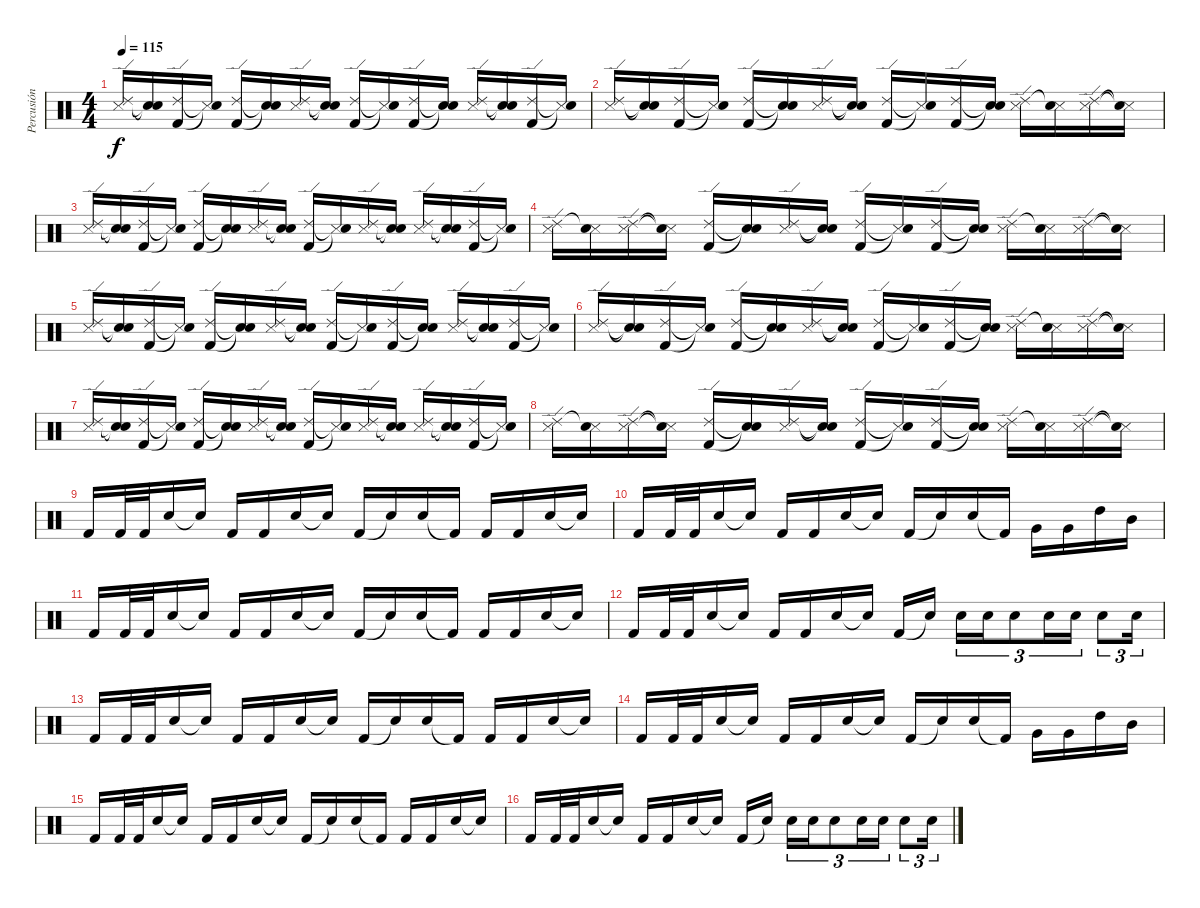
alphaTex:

\track ("Percusión" "Percusión") {instrument percussion}
\staff {score}
\articulation defaults
\ts (4 4)
\tempo 115
\clef neutral
\ks c
("Snare (side stick) 3" "Ride (edge) 2").16{dy f} ("Snare (hit)"{t} "Snare (hit)"{t}).16 ("Kick (hit) 2" "Ride (edge) 2").16 ("Snare (side stick) 3"{t} "Snare (hit)"{t}).16 ("Kick (hit) 2" "Ride (edge) 2").16 ("Snare (hit)"{t} "Snare (hit)"{t}).16 ("Snare (side stick) 3" "Ride (edge) 2").16 ("Snare (hit)"{t} "Snare (hit)"{t}).16 ("Kick (hit) 2" "Ride (edge) 2").16 ("Snare (side stick) 3"{t} "Snare (hit)"{t}).16 ("Kick (hit) 2" "Ride (edge) 2").16 ("Snare (hit)"{t} "Snare (hit)"{t}).16 ("Snare (side stick) 3" "Ride (edge) 2").16 ("Snare (hit)"{t} "Snare (hit)"{t}).16 ("Kick (hit) 2" "Ride (edge) 2").16 ("Snare (side stick) 3"{t} "Snare (hit)"{t}).16 |
("Snare (side stick) 3" "Ride (edge) 2").16 ("Snare (hit)"{t} "Snare (hit)"{t}).16 ("Kick (hit) 2" "Ride (edge) 2").16 ("Snare (side stick) 3"{t} "Snare (hit)"{t}).16 ("Kick (hit) 2" "Ride (edge) 2").16 ("Snare (hit)"{t} "Snare (hit)"{t}).16 ("Snare (side stick) 3" "Ride (edge) 2").16 ("Snare (hit)"{t} "Snare (hit)"{t}).16 ("Kick (hit) 2" "Ride (edge) 2").16 ("Snare (side stick) 3"{t} "Snare (hit)"{t}).16 ("Kick (hit) 2" "Ride (edge) 2").16 ("Snare (hit)"{t} "Snare (hit)"{t}).16 ("Snare (side stick) 3" "Ride (edge) 2").16 ("Snare (side stick) 3" "Snare (hit)"{t}).16 ("Snare (side stick) 3" "Ride (edge) 2").16 ("Snare (side stick) 3"{t} "Snare (hit)"{t}).16 |
("Snare (side stick) 3" "Ride (edge) 2").16 ("Snare (hit)"{t} "Snare (hit)"{t}).16 ("Kick (hit) 2" "Ride (edge) 2").16 ("Snare (side stick) 3"{t} "Snare (hit)"{t}).16 ("Kick (hit) 2" "Ride (edge) 2").16 ("Snare (hit)"{t} "Snare (hit)"{t}).16 ("Snare (side stick) 3" "Ride (edge) 2").16 ("Snare (hit)"{t} "Snare (hit)"{t}).16 ("Kick (hit) 2" "Ride (edge) 2").16 ("Snare (side stick) 3"{t} "Snare (hit)"{t}).16 ("Snare (side stick) 3" "Ride (edge) 2").16 ("Snare (hit)"{t} "Snare (hit)"{t}).16 ("Snare (side stick) 3" "Ride (edge) 2").16 ("Snare (hit)"{t} "Snare (hit)"{t}).16 ("Kick (hit) 2" "Ride (edge) 2").16 ("Snare (side stick) 3"{t} "Snare (hit)"{t}).16 |
("Snare (side stick) 3" "Ride (edge) 2").16 ("Snare (side stick) 3" "Snare (hit)"{t}).16 ("Snare (side stick) 3" "Ride (edge) 2").16 ("Snare (side stick) 3"{t} "Snare (hit)"{t}).16 ("Kick (hit) 2" "Ride (edge) 2").16 ("Snare (hit)"{t} "Snare (hit)"{t}).16 ("Snare (side stick) 3" "Ride (edge) 2").16 ("Snare (hit)"{t} "Snare (hit)"{t}).16 ("Kick (hit) 2" "Ride (edge) 2").16 ("Snare (side stick) 3"{t} "Snare (hit)"{t}).16 ("Kick (hit) 2" "Ride (edge) 2").16 ("Snare (hit)"{t} "Snare (hit)"{t}).16 ("Snare (side stick) 3" "Ride (edge) 2").16 ("Snare (side stick) 3" "Snare (hit)"{t}).16 ("Snare (side stick) 3" "Ride (edge) 2").16 ("Snare (side stick) 3"{t} "Snare (hit)"{t}).16 |
("Snare (side stick) 3" "Ride (edge) 2").16 ("Snare (hit)"{t} "Snare (hit)"{t}).16 ("Kick (hit) 2" "Ride (edge) 2").16 ("Snare (side stick) 3"{t} "Snare (hit)"{t}).16 ("Kick (hit) 2" "Ride (edge) 2").16 ("Snare (hit)"{t} "Snare (hit)"{t}).16 ("Snare (side stick) 3" "Ride (edge) 2").16 ("Snare (hit)"{t} "Snare (hit)"{t}).16 ("Kick (hit) 2" "Ride (edge) 2").16 ("Snare (side stick) 3"{t} "Snare (hit)"{t}).16 ("Kick (hit) 2" "Ride (edge) 2").16 ("Snare (hit)"{t} "Snare (hit)"{t}).16 ("Snare (side stick) 3" "Ride (edge) 2").16 ("Snare (hit)"{t} "Snare (hit)"{t}).16 ("Kick (hit) 2" "Ride (edge) 2").16 ("Snare (side stick) 3"{t} "Snare (hit)"{t}).16 |
("Snare (side stick) 3" "Ride (edge) 2").16 ("Snare (hit)"{t} "Snare (hit)"{t}).16 ("Kick (hit) 2" "Ride (edge) 2").16 ("Snare (side stick) 3"{t} "Snare (hit)"{t}).16 ("Kick (hit) 2" "Ride (edge) 2").16 ("Snare (hit)"{t} "Snare (hit)"{t}).16 ("Snare (side stick) 3" "Ride (edge) 2").16 ("Snare (hit)"{t} "Snare (hit)"{t}).16 ("Kick (hit) 2" "Ride (edge) 2").16 ("Snare (side stick) 3"{t} "Snare (hit)"{t}).16 ("Kick (hit) 2" "Ride (edge) 2").16 ("Snare (hit)"{t} "Snare (hit)"{t}).16 ("Snare (side stick) 3" "Ride (edge) 2").16 ("Snare (side stick) 3" "Snare (hit)"{t}).16 ("Snare (side stick) 3" "Ride (edge) 2").16 ("Snare (side stick) 3"{t} "Snare (hit)"{t}).16 |
("Snare (side stick) 3" "Ride (edge) 2").16 ("Snare (hit)"{t} "Snare (hit)"{t}).16 ("Kick (hit) 2" "Ride (edge) 2").16 ("Snare (side stick) 3"{t} "Snare (hit)"{t}).16 ("Kick (hit) 2" "Ride (edge) 2").16 ("Snare (hit)"{t} "Snare (hit)"{t}).16 ("Snare (side stick) 3" "Ride (edge) 2").16 ("Snare (hit)"{t} "Snare (hit)"{t}).16 ("Kick (hit) 2" "Ride (edge) 2").16 ("Snare (side stick) 3"{t} "Snare (hit)"{t}).16 ("Snare (side stick) 3" "Ride (edge) 2").16 ("Snare (hit)"{t} "Snare (hit)"{t}).16 ("Snare (side stick) 3" "Ride (edge) 2").16 ("Snare (hit)"{t} "Snare (hit)"{t}).16 ("Kick (hit) 2" "Ride (edge) 2").16 ("Snare (side stick) 3"{t} "Snare (hit)"{t}).16 |
("Snare (side stick) 3" "Ride (edge) 2").16 ("Snare (side stick) 3" "Snare (hit)"{t}).16 ("Snare (side stick) 3" "Ride (edge) 2").16 ("Snare (side stick) 3"{t} "Snare (hit)"{t}).16 ("Kick (hit) 2" "Ride (edge) 2").16 ("Snare (hit)"{t} "Snare (hit)"{t}).16 ("Snare (side stick) 3" "Ride (edge) 2").16 ("Snare (hit)"{t} "Snare (hit)"{t}).16 ("Kick (hit) 2" "Ride (edge) 2").16 ("Snare (side stick) 3"{t} "Snare (hit)"{t}).16 ("Kick (hit) 2" "Ride (edge) 2").16 ("Snare (hit)"{t} "Snare (hit)"{t}).16 ("Snare (side stick) 3" "Ride (edge) 2").16 ("Snare (side stick) 3" "Snare (hit)"{t}).16 ("Snare (side stick) 3" "Ride (edge) 2").16 ("Snare (side stick) 3"{t} "Snare (hit)"{t}).16 |
"Kick (hit) 2".16 "Kick (hit) 2".32 "Kick (hit) 2".32 "Electric Snare (hit)".16 "Snare (hit)"{t}.16 "Kick (hit) 2".16 "Kick (hit) 2".16 "Electric Snare (hit)".16 "Snare (hit)"{t}.16 "Kick (hit) 2".16 "Snare (hit)"{t}.16 "Electric Snare (hit)".16 "Kick (hit) 2"{t}.16 "Kick (hit) 2".16 "Kick (hit) 2".16 "Electric Snare (hit)".16 "Snare (hit)"{t}.16 |
"Kick (hit) 2".16 "Kick (hit) 2".32 "Kick (hit) 2".32 "Electric Snare (hit)".16 "Snare (hit)"{t}.16 "Kick (hit) 2".16 "Kick (hit) 2".16 "Electric Snare (hit)".16 "Snare (hit)"{t}.16 "Kick (hit) 2".16 "Snare (hit)"{t}.16 "Electric Snare (hit)".16 "Kick (hit) 2"{t}.16 "Very Low Tom (hit)".16 "Very Low Tom (hit)".16 "High Tom (hit)".16 "Mid Tom (hit)".16 |
"Kick (hit) 2".16 "Kick (hit) 2".32 "Kick (hit) 2".32 "Electric Snare (hit)".16 "Snare (hit)"{t}.16 "Kick (hit) 2".16 "Kick (hit) 2".16 "Electric Snare (hit)".16 "Snare (hit)"{t}.16 "Kick (hit) 2".16 "Snare (hit)"{t}.16 "Electric Snare (hit)".16 "Kick (hit) 2"{t}.16 "Kick (hit) 2".16 "Kick (hit) 2".16 "Electric Snare (hit)".16 "Snare (hit)"{t}.16 |
"Kick (hit) 2".16 "Kick (hit) 2".32 "Kick (hit) 2".32 "Electric Snare (hit)".16 "Snare (hit)"{t}.16 "Kick (hit) 2".16 "Kick (hit) 2".16 "Electric Snare (hit)".16 "Snare (hit)"{t}.16 "Kick (hit) 2".16 "Snare (hit)"{t}.16 "Electric Snare (hit)".16{tu (3 2)} "Electric Snare (hit)".16{tu (3 2)} "Electric Snare (hit)".8{tu (3 2)} "Electric Snare (hit)".16{tu (3 2)} "Electric Snare (hit)".16{tu (3 2)} "Electric Snare (hit)".8{tu (3 2)} "Electric Snare (hit)".16{tu (3 2)} |
"Kick (hit) 2".16 "Kick (hit) 2".32 "Kick (hit) 2".32 "Electric Snare (hit)".16 "Snare (hit)"{t}.16 "Kick (hit) 2".16 "Kick (hit) 2".16 "Electric Snare (hit)".16 "Snare (hit)"{t}.16 "Kick (hit) 2".16 "Snare (hit)"{t}.16 "Electric Snare (hit)".16 "Kick (hit) 2"{t}.16 "Kick (hit) 2".16 "Kick (hit) 2".16 "Electric Snare (hit)".16 "Snare (hit)"{t}.16 |
"Kick (hit) 2".16 "Kick (hit) 2".32 "Kick (hit) 2".32 "Electric Snare (hit)".16 "Snare (hit)"{t}.16 "Kick (hit) 2".16 "Kick (hit) 2".16 "Electric Snare (hit)".16 "Snare (hit)"{t}.16 "Kick (hit) 2".16 "Snare (hit)"{t}.16 "Electric Snare (hit)".16 "Kick (hit) 2"{t}.16 "Very Low Tom (hit)".16 "Very Low Tom (hit)".16 "High Tom (hit)".16 "Mid Tom (hit)".16 |
"Kick (hit) 2".16 "Kick (hit) 2".32 "Kick (hit) 2".32 "Electric Snare (hit)".16 "Snare (hit)"{t}.16 "Kick (hit) 2".16 "Kick (hit) 2".16 "Electric Snare (hit)".16 "Snare (hit)"{t}.16 "Kick (hit) 2".16 "Snare (hit)"{t}.16 "Electric Snare (hit)".16 "Kick (hit) 2"{t}.16 "Kick (hit) 2".16 "Kick (hit) 2".16 "Electric Snare (hit)".16 "Snare (hit)"{t}.16 |
"Kick (hit) 2".16 "Kick (hit) 2".32 "Kick (hit) 2".32 "Electric Snare (hit)".16 "Snare (hit)"{t}.16 "Kick (hit) 2".16 "Kick (hit) 2".16 "Electric Snare (hit)".16 "Snare (hit)"{t}.16 "Kick (hit) 2".16 "Snare (hit)"{t}.16 "Electric Snare (hit)".16{tu (3 2)} "Electric Snare (hit)".16{tu (3 2)} "Electric Snare (hit)".8{tu (3 2)} "Electric Snare (hit)".16{tu (3 2)} "Electric Snare (hit)".16{tu (3 2)} "Electric Snare (hit)".8{tu (3 2)} "Electric Snare (hit)".16{tu (3 2)}
